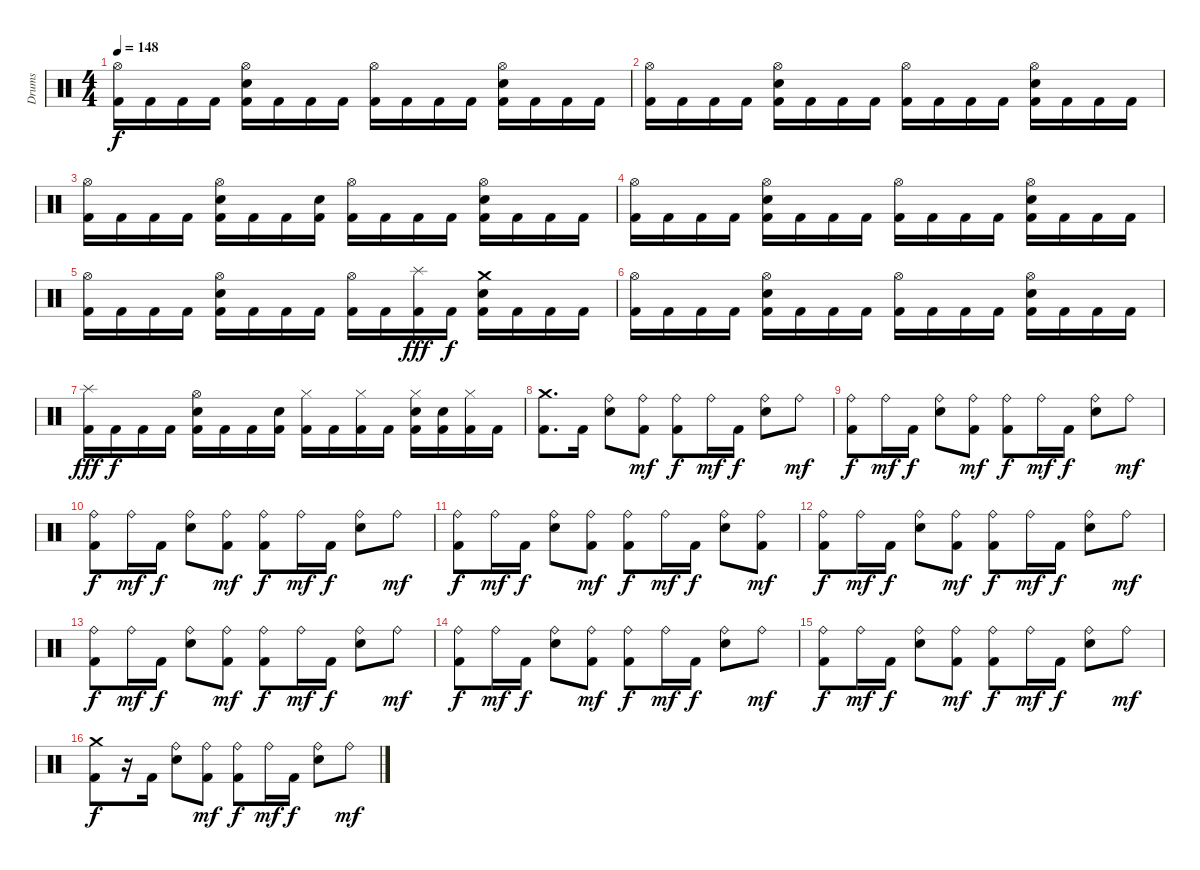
\track ("Drums" "Drums") {instrument percussion}
\staff {score}
\articulation defaults
\ts (4 4)
\tempo 148
\clef neutral
\ks c
("Hi-Hat (open)" "Kick (hit) 2").16{dy f} "Kick (hit) 2".16 "Kick (hit) 2".16 "Kick (hit) 2".16 ("Hi-Hat (open)" "Snare (hit) 2" "Kick (hit) 2").16 "Kick (hit) 2".16 "Kick (hit) 2".16 "Kick (hit) 2".16 ("Hi-Hat (open)" "Kick (hit) 2").16 "Kick (hit) 2".16 "Kick (hit) 2".16 "Kick (hit) 2".16 ("Hi-Hat (open)" "Snare (hit) 2" "Kick (hit) 2").16 "Kick (hit) 2".16 "Kick (hit) 2".16 "Kick (hit) 2".16 |
("Hi-Hat (open)" "Kick (hit) 2").16 "Kick (hit) 2".16 "Kick (hit) 2".16 "Kick (hit) 2".16 ("Hi-Hat (open)" "Snare (hit) 2" "Kick (hit) 2").16 "Kick (hit) 2".16 "Kick (hit) 2".16 "Kick (hit) 2".16 ("Hi-Hat (open)" "Kick (hit) 2").16 "Kick (hit) 2".16 "Kick (hit) 2".16 "Kick (hit) 2".16 ("Hi-Hat (open)" "Snare (hit) 2" "Kick (hit) 2").16 "Kick (hit) 2".16 "Kick (hit) 2".16 "Kick (hit) 2".16 |
("Hi-Hat (open)" "Kick (hit) 2").16 "Kick (hit) 2".16 "Kick (hit) 2".16 "Kick (hit) 2".16 ("Hi-Hat (open)" "Snare (hit) 2" "Kick (hit) 2").16 "Kick (hit) 2".16 "Kick (hit) 2".16 ("Snare (hit) 2" "Kick (hit) 2").16 ("Hi-Hat (open)" "Kick (hit) 2").16 "Kick (hit) 2".16 "Kick (hit) 2".16 "Kick (hit) 2".16 ("Hi-Hat (open)" "Snare (hit) 2" "Kick (hit) 2").16 "Kick (hit) 2".16 "Kick (hit) 2".16 "Kick (hit) 2".16 |
("Hi-Hat (open)" "Kick (hit) 2").16 "Kick (hit) 2".16 "Kick (hit) 2".16 "Kick (hit) 2".16 ("Hi-Hat (open)" "Snare (hit) 2" "Kick (hit) 2").16 "Kick (hit) 2".16 "Kick (hit) 2".16 "Kick (hit) 2".16 ("Hi-Hat (open)" "Kick (hit) 2").16 "Kick (hit) 2".16 "Kick (hit) 2".16 "Kick (hit) 2".16 ("Hi-Hat (open)" "Snare (hit) 2" "Kick (hit) 2").16 "Kick (hit) 2".16 "Kick (hit) 2".16 "Kick (hit) 2".16 |
("Hi-Hat (open)" "Kick (hit) 2").16 "Kick (hit) 2".16 "Kick (hit) 2".16 "Kick (hit) 2".16 ("Hi-Hat (open)" "Snare (hit) 2" "Kick (hit) 2").16 "Kick (hit) 2".16 "Kick (hit) 2".16 "Kick (hit) 2".16 ("Hi-Hat (open)" "Kick (hit) 2").16 "Kick (hit) 2".16 ("Splash (hit)" "Kick (hit) 2").16{dy fff} "Kick (hit) 2".16{dy f} ("Crash medium (hit)" "Snare (hit) 2" "Kick (hit) 2").16 "Kick (hit) 2".16 "Kick (hit) 2".16 "Kick (hit) 2".16 |
("Hi-Hat (open)" "Kick (hit) 2").16 "Kick (hit) 2".16 "Kick (hit) 2".16 "Kick (hit) 2".16 ("Hi-Hat (open)" "Snare (hit) 2" "Kick (hit) 2").16 "Kick (hit) 2".16 "Kick (hit) 2".16 "Kick (hit) 2".16 ("Hi-Hat (open)" "Kick (hit) 2").16 "Kick (hit) 2".16 "Kick (hit) 2".16 "Kick (hit) 2".16 ("Hi-Hat (open)" "Snare (hit) 2" "Kick (hit) 2").16 "Kick (hit) 2".16 "Kick (hit) 2".16 "Kick (hit) 2".16 |
("Splash (hit)" "Kick (hit) 2").16{dy fff} "Kick (hit) 2".16{dy f} "Kick (hit) 2".16 "Kick (hit) 2".16 ("Hi-Hat (open)" "Snare (hit) 2" "Kick (hit) 2").16 "Kick (hit) 2".16 "Kick (hit) 2".16 ("Snare (hit) 2" "Kick (hit) 2").16 ("Hi-Hat (closed)" "Kick (hit) 2").16 "Kick (hit) 2".16 ("Hi-Hat (closed)" "Kick (hit) 2").16 "Kick (hit) 2".16 ("Hi-Hat (closed)" "Snare (hit) 2" "Kick (hit) 2").16 ("Snare (hit) 2" "Kick (hit) 2").16 ("Hi-Hat (closed)" "Kick (hit) 2").16 "Kick (hit) 2".16 |
("Crash medium (hit)" "Kick (hit) 2").8{d} "Kick (hit) 2".16 ("Ride (bell)" "Snare (hit) 2").8 ("Ride (bell)" "Kick (hit) 2").8{dy mf} ("Ride (bell)" "Kick (hit) 2").8{dy f} "Ride (bell)".16{dy mf} "Kick (hit) 2".16{dy f} ("Ride (bell)" "Snare (hit) 2").8 "Ride (bell)".8{dy mf} |
("Ride (bell)" "Kick (hit) 2").8{dy f} "Ride (bell)".16{dy mf} "Kick (hit) 2".16{dy f} ("Ride (bell)" "Snare (hit) 2").8 ("Ride (bell)" "Kick (hit) 2").8{dy mf} ("Ride (bell)" "Kick (hit) 2").8{dy f} "Ride (bell)".16{dy mf} "Kick (hit) 2".16{dy f} ("Ride (bell)" "Snare (hit) 2").8 "Ride (bell)".8{dy mf} |
("Ride (bell)" "Kick (hit) 2").8{dy f} "Ride (bell)".16{dy mf} "Kick (hit) 2".16{dy f} ("Ride (bell)" "Snare (hit) 2").8 ("Ride (bell)" "Kick (hit) 2").8{dy mf} ("Ride (bell)" "Kick (hit) 2").8{dy f} "Ride (bell)".16{dy mf} "Kick (hit) 2".16{dy f} ("Ride (bell)" "Snare (hit) 2").8 "Ride (bell)".8{dy mf} |
("Ride (bell)" "Kick (hit) 2").8{dy f} "Ride (bell)".16{dy mf} "Kick (hit) 2".16{dy f} ("Ride (bell)" "Snare (hit) 2").8 ("Ride (bell)" "Kick (hit) 2").8{dy mf} ("Ride (bell)" "Kick (hit) 2").8{dy f} "Ride (bell)".16{dy mf} "Kick (hit) 2".16{dy f} ("Ride (bell)" "Snare (hit) 2").8 ("Ride (bell)" "Kick (hit) 2").8{dy mf} |
("Ride (bell)" "Kick (hit) 2").8{dy f} "Ride (bell)".16{dy mf} "Kick (hit) 2".16{dy f} ("Ride (bell)" "Snare (hit) 2").8 ("Ride (bell)" "Kick (hit) 2").8{dy mf} ("Ride (bell)" "Kick (hit) 2").8{dy f} "Ride (bell)".16{dy mf} "Kick (hit) 2".16{dy f} ("Ride (bell)" "Snare (hit) 2").8 "Ride (bell)".8{dy mf} |
("Ride (bell)" "Kick (hit) 2").8{dy f} "Ride (bell)".16{dy mf} "Kick (hit) 2".16{dy f} ("Ride (bell)" "Snare (hit) 2").8 ("Ride (bell)" "Kick (hit) 2").8{dy mf} ("Ride (bell)" "Kick (hit) 2").8{dy f} "Ride (bell)".16{dy mf} "Kick (hit) 2".16{dy f} ("Ride (bell)" "Snare (hit) 2").8 "Ride (bell)".8{dy mf} |
("Ride (bell)" "Kick (hit) 2").8{dy f} "Ride (bell)".16{dy mf} "Kick (hit) 2".16{dy f} ("Ride (bell)" "Snare (hit) 2").8 ("Ride (bell)" "Kick (hit) 2").8{dy mf} ("Ride (bell)" "Kick (hit) 2").8{dy f} "Ride (bell)".16{dy mf} "Kick (hit) 2".16{dy f} ("Ride (bell)" "Snare (hit) 2").8 "Ride (bell)".8{dy mf} |
("Ride (bell)" "Kick (hit) 2").8{dy f} "Ride (bell)".16{dy mf} "Kick (hit) 2".16{dy f} ("Ride (bell)" "Snare (hit) 2").8 ("Ride (bell)" "Kick (hit) 2").8{dy mf} ("Ride (bell)" "Kick (hit) 2").8{dy f} "Ride (bell)".16{dy mf} "Kick (hit) 2".16{dy f} ("Ride (bell)" "Snare (hit) 2").8 "Ride (bell)".8{dy mf} |
("Crash medium (hit)" "Kick (hit) 2").8{dy f} r.16 "Kick (hit) 2".16 ("Ride (bell)" "Snare (hit) 2").8 ("Ride (bell)" "Kick (hit) 2").8{dy mf} ("Ride (bell)" "Kick (hit) 2").8{dy f} "Ride (bell)".16{dy mf} "Kick (hit) 2".16{dy f} ("Ride (bell)" "Snare (hit) 2").8 "Ride (bell)".8{dy mf}
